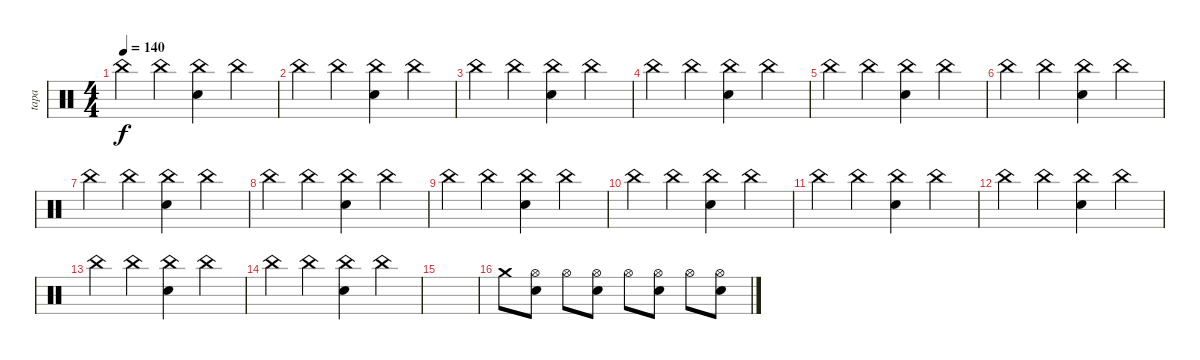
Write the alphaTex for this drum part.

\track ("tapa" "tapa") {instrument percussion}
\staff {score}
\articulation defaults
\ts (4 4)
\tempo 140
\clef neutral
\ks c "China (hit)".4{dy f} "China (hit)".4
("China (hit)" "Snare (hit) 2").4 "China (hit)".4 |
"China (hit)".4 "China (hit)".4 ("China (hit)" "Snare (hit) 2").4 "China (hit)".4 |
"China (hit)".4 "China (hit)".4 ("China (hit)" "Snare (hit) 2").4 "China (hit)".4 |
"China (hit)".4 "China (hit)".4 ("China (hit)" "Snare (hit) 2").4 "China (hit)".4 |
"China (hit)".4 "China (hit)".4 ("China (hit)" "Snare (hit) 2").4 "China (hit)".4 |
"China (hit)".4 "China (hit)".4 ("China (hit)" "Snare (hit) 2").4 "China (hit)".4 |
"China (hit)".4 "China (hit)".4 ("China (hit)" "Snare (hit) 2").4 "China (hit)".4 |
"China (hit)".4 "China (hit)".4 ("China (hit)" "Snare (hit) 2").4 "China (hit)".4 |
"China (hit)".4 "China (hit)".4 ("China (hit)" "Snare (hit) 2").4 "China (hit)".4 |
"China (hit)".4 "China (hit)".4 ("China (hit)" "Snare (hit) 2").4 "China (hit)".4 |
"China (hit)".4 "China (hit)".4 ("China (hit)" "Snare (hit) 2").4 "China (hit)".4 |
"China (hit)".4 "China (hit)".4 ("China (hit)" "Snare (hit) 2").4 "China (hit)".4 |
"China (hit)".4 "China (hit)".4 ("China (hit)" "Snare (hit) 2").4 "China (hit)".4 |
"China (hit)".4 "China (hit)".4 ("China (hit)" "Snare (hit) 2").4 "China (hit)".4 |
|
"Crash medium (hit)".8 ("Hi-Hat (open)" "Snare (hit) 2").8 "Hi-Hat (open)".8 ("Hi-Hat (open)" "Snare (hit) 2").8 "Hi-Hat (open)".8 ("Hi-Hat (open)" "Snare (hit) 2").8 "Hi-Hat (open)".8 ("Hi-Hat (open)" "Snare (hit) 2").8
